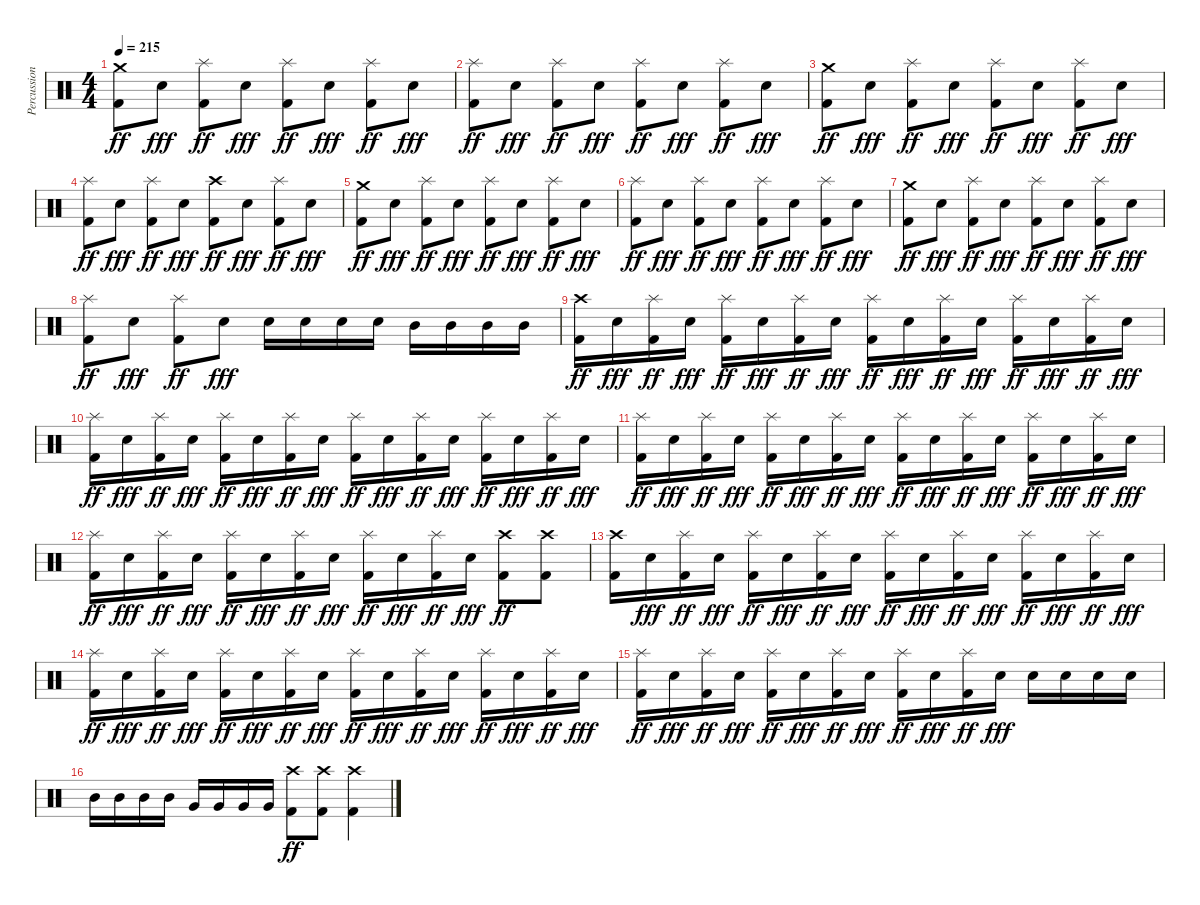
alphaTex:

\track ("Percussion" "Percussion") {instrument percussion}
\staff {score}
\articulation defaults
\ts (4 4)
\tempo 215
\clef neutral
\ks c
("Kick (hit) 2" "Crash medium (hit)").8{dy ff} "Electric Snare (hit)".8{dy fff} ("Kick (hit) 2" "Splash (hit)").8{dy ff} "Electric Snare (hit)".8{dy fff} ("Kick (hit) 2" "Splash (hit)").8{dy ff} "Electric Snare (hit)".8{dy fff} ("Kick (hit) 2" "Splash (hit)").8{dy ff} "Electric Snare (hit)".8{dy fff} |
("Kick (hit) 2" "Splash (hit)").8{dy ff} "Electric Snare (hit)".8{dy fff} ("Kick (hit) 2" "Splash (hit)").8{dy ff} "Electric Snare (hit)".8{dy fff} ("Kick (hit) 2" "Splash (hit)").8{dy ff} "Electric Snare (hit)".8{dy fff} ("Kick (hit) 2" "Splash (hit)").8{dy ff} "Electric Snare (hit)".8{dy fff} |
("Kick (hit) 2" "Crash medium (hit)").8{dy ff} "Electric Snare (hit)".8{dy fff} ("Kick (hit) 2" "Splash (hit)").8{dy ff} "Electric Snare (hit)".8{dy fff} ("Kick (hit) 2" "Splash (hit)").8{dy ff} "Electric Snare (hit)".8{dy fff} ("Kick (hit) 2" "Splash (hit)").8{dy ff} "Electric Snare (hit)".8{dy fff} |
("Kick (hit) 2" "Splash (hit)").8{dy ff} "Electric Snare (hit)".8{dy fff} ("Kick (hit) 2" "Splash (hit)").8{dy ff} "Electric Snare (hit)".8{dy fff} ("Kick (hit) 2" "Crash high (hit)").8{dy ff} "Electric Snare (hit)".8{dy fff} ("Kick (hit) 2" "Splash (hit)").8{dy ff} "Electric Snare (hit)".8{dy fff} |
("Kick (hit) 2" "Crash medium (hit)").8{dy ff} "Electric Snare (hit)".8{dy fff} ("Kick (hit) 2" "Splash (hit)").8{dy ff} "Electric Snare (hit)".8{dy fff} ("Kick (hit) 2" "Splash (hit)").8{dy ff} "Electric Snare (hit)".8{dy fff} ("Kick (hit) 2" "Splash (hit)").8{dy ff} "Electric Snare (hit)".8{dy fff} |
("Kick (hit) 2" "Splash (hit)").8{dy ff} "Electric Snare (hit)".8{dy fff} ("Kick (hit) 2" "Splash (hit)").8{dy ff} "Electric Snare (hit)".8{dy fff} ("Kick (hit) 2" "Splash (hit)").8{dy ff} "Electric Snare (hit)".8{dy fff} ("Kick (hit) 2" "Splash (hit)").8{dy ff} "Electric Snare (hit)".8{dy fff} |
("Kick (hit) 2" "Crash medium (hit)").8{dy ff} "Electric Snare (hit)".8{dy fff} ("Kick (hit) 2" "Splash (hit)").8{dy ff} "Electric Snare (hit)".8{dy fff} ("Kick (hit) 2" "Splash (hit)").8{dy ff} "Electric Snare (hit)".8{dy fff} ("Kick (hit) 2" "Splash (hit)").8{dy ff} "Electric Snare (hit)".8{dy fff} |
("Kick (hit) 2" "Splash (hit)").8{dy ff} "Electric Snare (hit)".8{dy fff} ("Kick (hit) 2" "Splash (hit)").8{dy ff} "Electric Snare (hit)".8{dy fff} "Electric Snare (hit)".16 "Electric Snare (hit)".16 "Electric Snare (hit)".16 "Electric Snare (hit)".16 "Mid Tom (hit)".16 "Mid Tom (hit)".16 "Mid Tom (hit)".16 "Mid Tom (hit)".16 |
("Kick (hit) 2" "Crash high (hit)").16{dy ff} "Electric Snare (hit)".16{dy fff} ("Kick (hit) 2" "Splash (hit)").16{dy ff} "Electric Snare (hit)".16{dy fff} ("Kick (hit) 2" "Splash (hit)").16{dy ff} "Electric Snare (hit)".16{dy fff} ("Kick (hit) 2" "Splash (hit)").16{dy ff} "Electric Snare (hit)".16{dy fff} ("Kick (hit) 2" "Splash (hit)").16{dy ff} "Electric Snare (hit)".16{dy fff} ("Kick (hit) 2" "Splash (hit)").16{dy ff} "Electric Snare (hit)".16{dy fff} ("Kick (hit) 2" "Splash (hit)").16{dy ff} "Electric Snare (hit)".16{dy fff} ("Kick (hit) 2" "Splash (hit)").16{dy ff} "Electric Snare (hit)".16{dy fff} |
("Kick (hit) 2" "Splash (hit)").16{dy ff} "Electric Snare (hit)".16{dy fff} ("Kick (hit) 2" "Splash (hit)").16{dy ff} "Electric Snare (hit)".16{dy fff} ("Kick (hit) 2" "Splash (hit)").16{dy ff} "Electric Snare (hit)".16{dy fff} ("Kick (hit) 2" "Splash (hit)").16{dy ff} "Electric Snare (hit)".16{dy fff} ("Kick (hit) 2" "Splash (hit)").16{dy ff} "Electric Snare (hit)".16{dy fff} ("Kick (hit) 2" "Splash (hit)").16{dy ff} "Electric Snare (hit)".16{dy fff} ("Kick (hit) 2" "Splash (hit)").16{dy ff} "Electric Snare (hit)".16{dy fff} ("Kick (hit) 2" "Splash (hit)").16{dy ff} "Electric Snare (hit)".16{dy fff} |
("Kick (hit) 2" "Splash (hit)").16{dy ff} "Electric Snare (hit)".16{dy fff} ("Kick (hit) 2" "Splash (hit)").16{dy ff} "Electric Snare (hit)".16{dy fff} ("Kick (hit) 2" "Splash (hit)").16{dy ff} "Electric Snare (hit)".16{dy fff} ("Kick (hit) 2" "Splash (hit)").16{dy ff} "Electric Snare (hit)".16{dy fff} ("Kick (hit) 2" "Splash (hit)").16{dy ff} "Electric Snare (hit)".16{dy fff} ("Kick (hit) 2" "Splash (hit)").16{dy ff} "Electric Snare (hit)".16{dy fff} ("Kick (hit) 2" "Splash (hit)").16{dy ff} "Electric Snare (hit)".16{dy fff} ("Kick (hit) 2" "Splash (hit)").16{dy ff} "Electric Snare (hit)".16{dy fff} |
("Kick (hit) 2" "Splash (hit)").16{dy ff} "Electric Snare (hit)".16{dy fff} ("Kick (hit) 2" "Splash (hit)").16{dy ff} "Electric Snare (hit)".16{dy fff} ("Kick (hit) 2" "Splash (hit)").16{dy ff} "Electric Snare (hit)".16{dy fff} ("Kick (hit) 2" "Splash (hit)").16{dy ff} "Electric Snare (hit)".16{dy fff} ("Kick (hit) 2" "Splash (hit)").16{dy ff} "Electric Snare (hit)".16{dy fff} ("Kick (hit) 2" "Splash (hit)").16{dy ff} "Electric Snare (hit)".16{dy fff} ("Kick (hit) 2" "Crash high (hit)").8{dy ff} ("Kick (hit) 2" "Crash high (hit)").8 |
("Kick (hit) 2" "Crash high (hit)").16 "Electric Snare (hit)".16{dy fff} ("Kick (hit) 2" "Splash (hit)").16{dy ff} "Electric Snare (hit)".16{dy fff} ("Kick (hit) 2" "Splash (hit)").16{dy ff} "Electric Snare (hit)".16{dy fff} ("Kick (hit) 2" "Splash (hit)").16{dy ff} "Electric Snare (hit)".16{dy fff} ("Kick (hit) 2" "Splash (hit)").16{dy ff} "Electric Snare (hit)".16{dy fff} ("Kick (hit) 2" "Splash (hit)").16{dy ff} "Electric Snare (hit)".16{dy fff} ("Kick (hit) 2" "Splash (hit)").16{dy ff} "Electric Snare (hit)".16{dy fff} ("Kick (hit) 2" "Splash (hit)").16{dy ff} "Electric Snare (hit)".16{dy fff} |
("Kick (hit) 2" "Splash (hit)").16{dy ff} "Electric Snare (hit)".16{dy fff} ("Kick (hit) 2" "Splash (hit)").16{dy ff} "Electric Snare (hit)".16{dy fff} ("Kick (hit) 2" "Splash (hit)").16{dy ff} "Electric Snare (hit)".16{dy fff} ("Kick (hit) 2" "Splash (hit)").16{dy ff} "Electric Snare (hit)".16{dy fff} ("Kick (hit) 2" "Splash (hit)").16{dy ff} "Electric Snare (hit)".16{dy fff} ("Kick (hit) 2" "Splash (hit)").16{dy ff} "Electric Snare (hit)".16{dy fff} ("Kick (hit) 2" "Splash (hit)").16{dy ff} "Electric Snare (hit)".16{dy fff} ("Kick (hit) 2" "Splash (hit)").16{dy ff} "Electric Snare (hit)".16{dy fff} |
("Kick (hit) 2" "Splash (hit)").16{dy ff} "Electric Snare (hit)".16{dy fff} ("Kick (hit) 2" "Splash (hit)").16{dy ff} "Electric Snare (hit)".16{dy fff} ("Kick (hit) 2" "Splash (hit)").16{dy ff} "Electric Snare (hit)".16{dy fff} ("Kick (hit) 2" "Splash (hit)").16{dy ff} "Electric Snare (hit)".16{dy fff} ("Kick (hit) 2" "Splash (hit)").16{dy ff} "Electric Snare (hit)".16{dy fff} ("Kick (hit) 2" "Splash (hit)").16{dy ff} "Electric Snare (hit)".16{dy fff} "Electric Snare (hit)".16 "Electric Snare (hit)".16 "Electric Snare (hit)".16 "Electric Snare (hit)".16 |
"Mid Tom (hit)".16 "Mid Tom (hit)".16 "Mid Tom (hit)".16 "Mid Tom (hit)".16 "Very Low Tom (hit)".16 "Very Low Tom (hit)".16 "Very Low Tom (hit)".16 "Very Low Tom (hit)".16 ("Kick (hit) 2" "Crash high (hit)").8{dy ff} ("Kick (hit) 2" "Crash high (hit)").8 ("Kick (hit) 2" "Crash high (hit)").4
